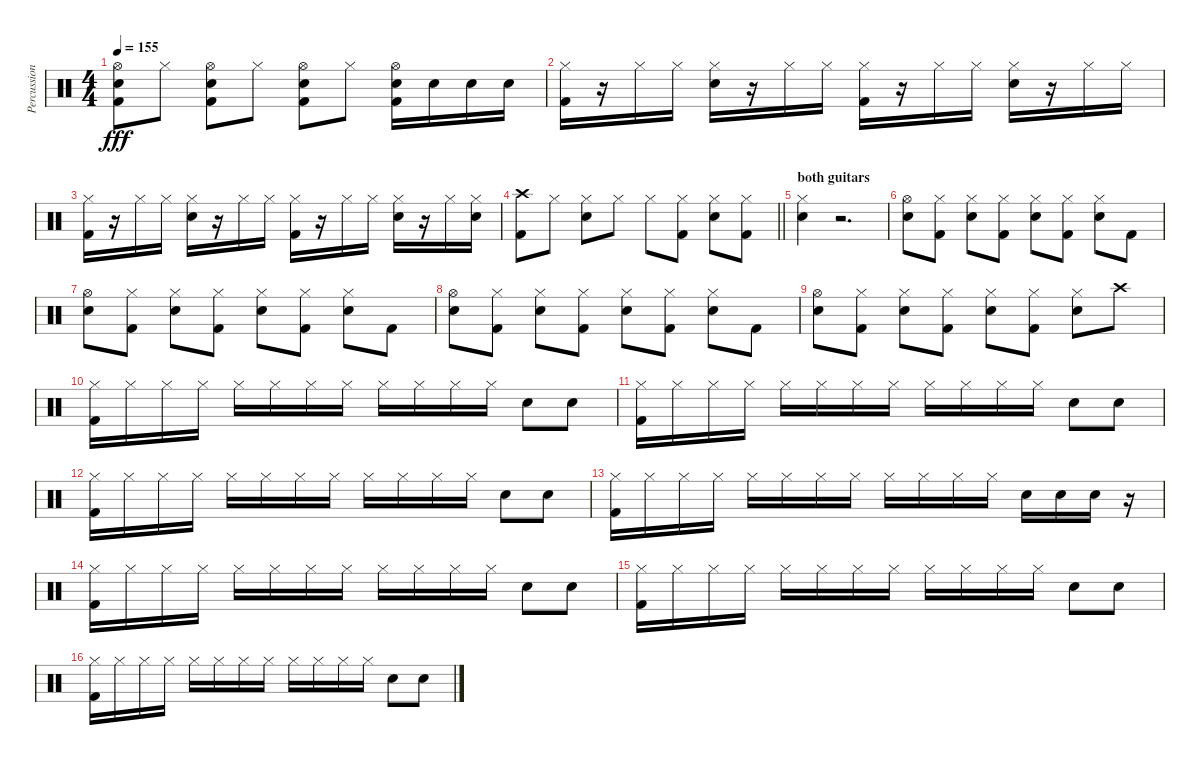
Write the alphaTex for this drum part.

\track ("Percussion" "Percussion") {instrument percussion}
\staff {score}
\articulation defaults
\ts (4 4)
\tempo 155
\clef neutral
\ks c
("Electric Snare (hit)" "Kick (hit) 2" "Hi-Hat (open)").8{dy fff} "Hi-Hat (closed)".8 ("Electric Snare (hit)" "Kick (hit) 2" "Hi-Hat (open)").8 "Hi-Hat (closed)".8 ("Electric Snare (hit)" "Kick (hit) 2" "Hi-Hat (open)").8 "Hi-Hat (closed)".8 ("Electric Snare (hit)" "Kick (hit) 2" "Hi-Hat (open)").16 "Electric Snare (hit)".16 "Electric Snare (hit)".16 "Electric Snare (hit)".16 |
("Kick (hit) 2" "Hi-Hat (closed)").16 r.16 "Hi-Hat (closed)".16 "Hi-Hat (closed)".16 ("Electric Snare (hit)" "Hi-Hat (closed)").16 r.16 "Hi-Hat (closed)".16 "Hi-Hat (closed)".16 ("Kick (hit) 2" "Hi-Hat (closed)").16 r.16 "Hi-Hat (closed)".16 "Hi-Hat (closed)".16 ("Electric Snare (hit)" "Hi-Hat (closed)").16 r.16 "Hi-Hat (closed)".16 "Hi-Hat (closed)".16 |
("Kick (hit) 2" "Hi-Hat (closed)").16 r.16 "Hi-Hat (closed)".16 "Hi-Hat (closed)".16 ("Electric Snare (hit)" "Hi-Hat (closed)").16 r.16 "Hi-Hat (closed)".16 "Hi-Hat (closed)".16 ("Kick (hit) 2" "Hi-Hat (closed)").16 r.16 "Hi-Hat (closed)".16 "Hi-Hat (closed)".16 ("Electric Snare (hit)" "Hi-Hat (closed)").16 r.16 "Hi-Hat (closed)".16 ("Electric Snare (hit)" "Hi-Hat (closed)").16 |
\barLineRight lightlight
("Kick (hit) 2" "Crash high (hit)").8 "Hi-Hat (closed)".8 ("Electric Snare (hit)" "Hi-Hat (closed)").8 "Hi-Hat (closed)".8 "Hi-Hat (closed)".8 ("Kick (hit) 2" "Hi-Hat (closed)").8 ("Electric Snare (hit)" "Hi-Hat (closed)").8 ("Kick (hit) 2" "Hi-Hat (closed)").8 |
\section ("" "both guitars")
("Electric Snare (hit)" "Hi-Hat (closed)").4 r.2{d} |
("Electric Snare (hit)" "Hi-Hat (open)").8 ("Kick (hit) 2" "Hi-Hat (closed)").8 ("Electric Snare (hit)" "Hi-Hat (closed)").8 ("Kick (hit) 2" "Hi-Hat (closed)").8 ("Electric Snare (hit)" "Hi-Hat (closed)").8 ("Kick (hit) 2" "Hi-Hat (closed)").8 ("Electric Snare (hit)" "Hi-Hat (closed)").8 "Kick (hit) 2".8 |
("Electric Snare (hit)" "Hi-Hat (open)").8 ("Kick (hit) 2" "Hi-Hat (closed)").8 ("Electric Snare (hit)" "Hi-Hat (closed)").8 ("Kick (hit) 2" "Hi-Hat (closed)").8 ("Electric Snare (hit)" "Hi-Hat (closed)").8 ("Kick (hit) 2" "Hi-Hat (closed)").8 ("Electric Snare (hit)" "Hi-Hat (closed)").8 "Kick (hit) 2".8 |
("Electric Snare (hit)" "Hi-Hat (open)").8 ("Kick (hit) 2" "Hi-Hat (closed)").8 ("Electric Snare (hit)" "Hi-Hat (closed)").8 ("Kick (hit) 2" "Hi-Hat (closed)").8 ("Electric Snare (hit)" "Hi-Hat (closed)").8 ("Kick (hit) 2" "Hi-Hat (closed)").8 ("Electric Snare (hit)" "Hi-Hat (closed)").8 "Kick (hit) 2".8 |
("Electric Snare (hit)" "Hi-Hat (open)").8 ("Kick (hit) 2" "Hi-Hat (closed)").8 ("Electric Snare (hit)" "Hi-Hat (closed)").8 ("Kick (hit) 2" "Hi-Hat (closed)").8 ("Electric Snare (hit)" "Hi-Hat (closed)").8 ("Kick (hit) 2" "Hi-Hat (closed)").8 ("Electric Snare (hit)" "Hi-Hat (closed)").8 "Crash high (hit)".8 |
("Kick (hit) 2" "Hi-Hat (closed)").16 "Hi-Hat (closed)".16 "Hi-Hat (closed)".16 "Hi-Hat (closed)".16 "Hi-Hat (closed)".16 "Hi-Hat (closed)".16 "Hi-Hat (closed)".16 "Hi-Hat (closed)".16 "Hi-Hat (closed)".16 "Hi-Hat (closed)".16 "Hi-Hat (closed)".16 "Hi-Hat (closed)".16 "Electric Snare (hit)".8 "Electric Snare (hit)".8 |
("Kick (hit) 2" "Hi-Hat (closed)").16 "Hi-Hat (closed)".16 "Hi-Hat (closed)".16 "Hi-Hat (closed)".16 "Hi-Hat (closed)".16 "Hi-Hat (closed)".16 "Hi-Hat (closed)".16 "Hi-Hat (closed)".16 "Hi-Hat (closed)".16 "Hi-Hat (closed)".16 "Hi-Hat (closed)".16 "Hi-Hat (closed)".16 "Electric Snare (hit)".8 "Electric Snare (hit)".8 |
("Kick (hit) 2" "Hi-Hat (closed)").16 "Hi-Hat (closed)".16 "Hi-Hat (closed)".16 "Hi-Hat (closed)".16 "Hi-Hat (closed)".16 "Hi-Hat (closed)".16 "Hi-Hat (closed)".16 "Hi-Hat (closed)".16 "Hi-Hat (closed)".16 "Hi-Hat (closed)".16 "Hi-Hat (closed)".16 "Hi-Hat (closed)".16 "Electric Snare (hit)".8 "Electric Snare (hit)".8 |
("Kick (hit) 2" "Hi-Hat (closed)").16 "Hi-Hat (closed)".16 "Hi-Hat (closed)".16 "Hi-Hat (closed)".16 "Hi-Hat (closed)".16 "Hi-Hat (closed)".16 "Hi-Hat (closed)".16 "Hi-Hat (closed)".16 "Hi-Hat (closed)".16 "Hi-Hat (closed)".16 "Hi-Hat (closed)".16 "Hi-Hat (closed)".16 "Electric Snare (hit)".16 "Electric Snare (hit)".16 "Electric Snare (hit)".16 r.16 |
("Kick (hit) 2" "Hi-Hat (closed)").16 "Hi-Hat (closed)".16 "Hi-Hat (closed)".16 "Hi-Hat (closed)".16 "Hi-Hat (closed)".16 "Hi-Hat (closed)".16 "Hi-Hat (closed)".16 "Hi-Hat (closed)".16 "Hi-Hat (closed)".16 "Hi-Hat (closed)".16 "Hi-Hat (closed)".16 "Hi-Hat (closed)".16 "Electric Snare (hit)".8 "Electric Snare (hit)".8 |
("Kick (hit) 2" "Hi-Hat (closed)").16 "Hi-Hat (closed)".16 "Hi-Hat (closed)".16 "Hi-Hat (closed)".16 "Hi-Hat (closed)".16 "Hi-Hat (closed)".16 "Hi-Hat (closed)".16 "Hi-Hat (closed)".16 "Hi-Hat (closed)".16 "Hi-Hat (closed)".16 "Hi-Hat (closed)".16 "Hi-Hat (closed)".16 "Electric Snare (hit)".8 "Electric Snare (hit)".8 |
("Kick (hit) 2" "Hi-Hat (closed)").16 "Hi-Hat (closed)".16 "Hi-Hat (closed)".16 "Hi-Hat (closed)".16 "Hi-Hat (closed)".16 "Hi-Hat (closed)".16 "Hi-Hat (closed)".16 "Hi-Hat (closed)".16 "Hi-Hat (closed)".16 "Hi-Hat (closed)".16 "Hi-Hat (closed)".16 "Hi-Hat (closed)".16 "Electric Snare (hit)".8 "Electric Snare (hit)".8
